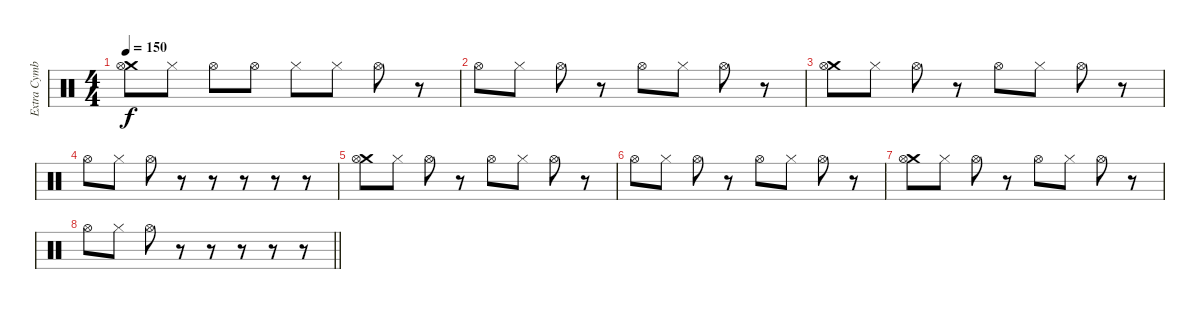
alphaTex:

\track ("Extra Cymbals" "Extra Cymb") {instrument percussion bank 255}
\staff {score}
\articulation defaults
\ts (4 4)
\tempo 150
\clef neutral
\ks c
("Crash medium (hit)" "Hi-Hat (open)").8{dy f} "Hi-Hat (closed)".8 "Hi-Hat (open)".8 "Hi-Hat (open)".8 "Hi-Hat (closed)".8 "Hi-Hat (closed)".8 "Hi-Hat (open)".8 r.8 |
"Hi-Hat (open)".8 "Hi-Hat (closed)".8 "Hi-Hat (open)".8 r.8 "Hi-Hat (open)".8 "Hi-Hat (closed)".8 "Hi-Hat (open)".8 r.8 |
("Crash medium (hit)" "Hi-Hat (open)").8 "Hi-Hat (closed)".8 "Hi-Hat (open)".8 r.8 "Hi-Hat (open)".8 "Hi-Hat (closed)".8 "Hi-Hat (open)".8 r.8 |
"Hi-Hat (open)".8 "Hi-Hat (closed)".8 "Hi-Hat (open)".8 r.8 r.8 r.8 r.8 r.8 |
("Crash medium (hit)" "Hi-Hat (open)").8 "Hi-Hat (closed)".8 "Hi-Hat (open)".8 r.8 "Hi-Hat (open)".8 "Hi-Hat (closed)".8 "Hi-Hat (open)".8 r.8 |
"Hi-Hat (open)".8 "Hi-Hat (closed)".8 "Hi-Hat (open)".8 r.8 "Hi-Hat (open)".8 "Hi-Hat (closed)".8 "Hi-Hat (open)".8 r.8 |
("Crash medium (hit)" "Hi-Hat (open)").8 "Hi-Hat (closed)".8 "Hi-Hat (open)".8 r.8 "Hi-Hat (open)".8 "Hi-Hat (closed)".8 "Hi-Hat (open)".8 r.8 |
\barLineRight lightlight "Hi-Hat (open)".8 "Hi-Hat (closed)".8 "Hi-Hat (open)".8
r.8 r.8 r.8 r.8 r.8
